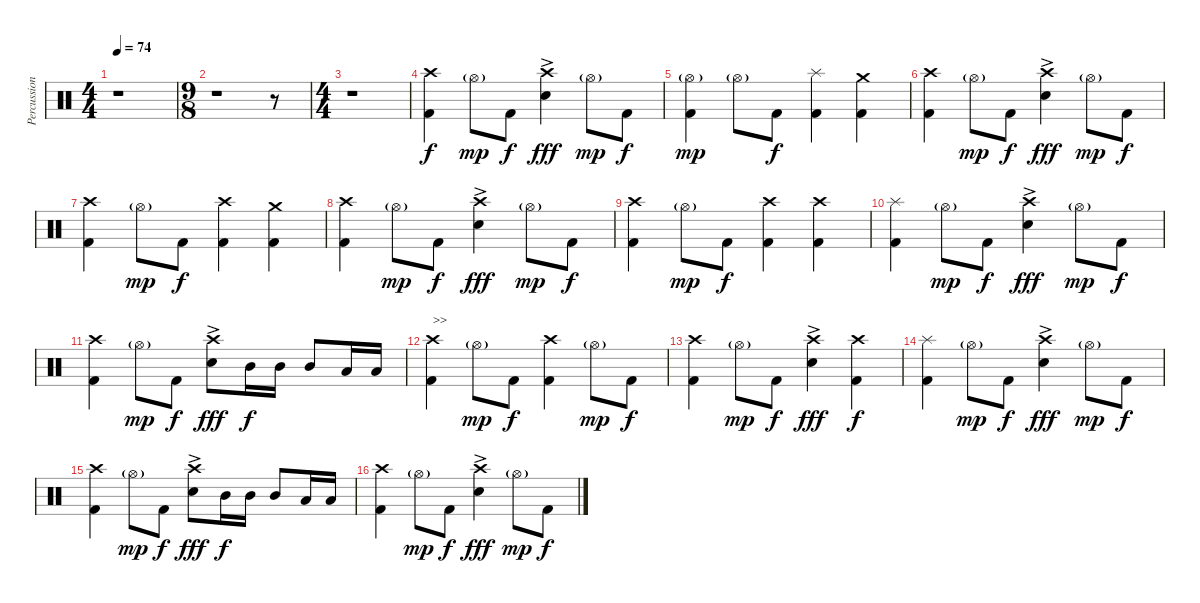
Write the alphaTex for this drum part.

\track ("Percussion" "Percussion") {instrument percussion}
\staff {score}
\articulation defaults
\ts (4 4)
\tempo 74
\clef neutral
\ks c
r.1{dy f} |
\ts (9 8)
r.1 r.8 |
\ts (4 4)
r.1 |
("Crash high (hit)" "Kick (hit) 2").4 "Hi-Hat (open)"{g}.8{dy mp} "Kick (hit) 2".8{dy f} ("Crash high (hit)" "Snare (hit) 2"{ac}).4{dy fff} "Hi-Hat (open)"{g}.8{dy mp} "Kick (hit) 2".8{dy f} |
("Hi-Hat (open)"{g} "Kick (hit) 2").4{dy mp} "Hi-Hat (open)"{g}.8 "Kick (hit) 2".8{dy f} ("Splash (hit)" "Kick (hit) 2").4 ("Crash medium (hit)" "Kick (hit) 2").4 |
("Crash high (hit)" "Kick (hit) 2").4 "Hi-Hat (open)"{g}.8{dy mp} "Kick (hit) 2".8{dy f} ("Crash high (hit)" "Snare (hit) 2"{ac}).4{dy fff} "Hi-Hat (open)"{g}.8{dy mp} "Kick (hit) 2".8{dy f} |
("Crash high (hit)" "Kick (hit) 2").4 "Hi-Hat (open)"{g}.8{dy mp} "Kick (hit) 2".8{dy f} ("Crash high (hit)" "Kick (hit) 2").4 ("Crash medium (hit)" "Kick (hit) 2").4 |
("Crash high (hit)" "Kick (hit) 2").4 "Hi-Hat (open)"{g}.8{dy mp} "Kick (hit) 2".8{dy f} ("Crash high (hit)" "Snare (hit) 2"{ac}).4{dy fff} "Hi-Hat (open)"{g}.8{dy mp} "Kick (hit) 2".8{dy f} |
("Crash high (hit)" "Kick (hit) 2").4 "Hi-Hat (open)"{g}.8{dy mp} "Kick (hit) 2".8{dy f} ("Crash high (hit)" "Kick (hit) 2").4 ("Crash high (hit)" "Kick (hit) 2").4 |
("Splash (hit)" "Kick (hit) 2").4 "Hi-Hat (open)"{g}.8{dy mp} "Kick (hit) 2".8{dy f} ("Crash high (hit)" "Snare (hit) 2"{ac}).4{dy fff} "Hi-Hat (open)"{g}.8{dy mp} "Kick (hit) 2".8{dy f} |
("Crash high (hit)" "Kick (hit) 2").4 "Hi-Hat (open)"{g}.8{dy mp} "Kick (hit) 2".8{dy f} ("Crash high (hit)" "Snare (hit) 2"{ac}).8{dy fff} "Mid Tom (hit)".16{dy f} "Mid Tom (hit)".16 "Mid Tom (hit)".8 "Low Tom (hit)".16 "Low Tom (hit)".16 |
("Crash high (hit)" "Kick (hit) 2").4{txt ">>"} "Hi-Hat (open)"{g}.8{dy mp} "Kick (hit) 2".8{dy f} ("Crash high (hit)" "Kick (hit) 2").4 "Hi-Hat (open)"{g}.8{dy mp} "Kick (hit) 2".8{dy f} |
("Crash high (hit)" "Kick (hit) 2").4 "Hi-Hat (open)"{g}.8{dy mp} "Kick (hit) 2".8{dy f} ("Crash high (hit)" "Snare (hit) 2"{ac}).4{dy fff} ("Crash high (hit)" "Kick (hit) 2").4{dy f} |
("Splash (hit)" "Kick (hit) 2").4 "Hi-Hat (open)"{g}.8{dy mp} "Kick (hit) 2".8{dy f} ("Crash high (hit)" "Snare (hit) 2"{ac}).4{dy fff} "Hi-Hat (open)"{g}.8{dy mp} "Kick (hit) 2".8{dy f} |
("Crash high (hit)" "Kick (hit) 2").4 "Hi-Hat (open)"{g}.8{dy mp} "Kick (hit) 2".8{dy f} ("Crash high (hit)" "Snare (hit) 2"{ac}).8{dy fff} "Mid Tom (hit)".16{dy f} "Mid Tom (hit)".16 "Mid Tom (hit)".8 "Low Tom (hit)".16 "Low Tom (hit)".16 |
("Crash high (hit)" "Kick (hit) 2").4 "Hi-Hat (open)"{g}.8{dy mp} "Kick (hit) 2".8{dy f} ("Crash high (hit)" "Snare (hit) 2"{ac}).4{dy fff} "Hi-Hat (open)"{g}.8{dy mp} "Kick (hit) 2".8{dy f}
